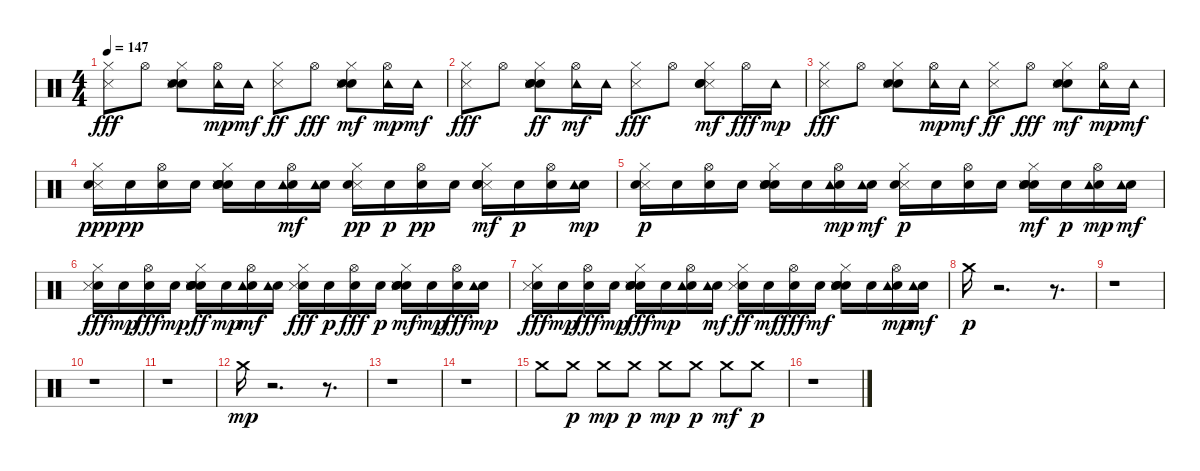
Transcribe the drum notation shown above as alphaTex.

\track "" {instrument percussion}
\staff {score}
\articulation defaults
\ts (4 4)
\tempo 147
\clef neutral
\ks c
("Metronome (hit)" "Hi-Hat (closed)").8{dy fff} "Hi-Hat (open)".8 ("Hand Clap (hit)" "Metronome (hit)" "Hi-Hat (closed)" "Snare (hit) 2").8 ("Hi-Hat (open)" "Tambourine (hit)").16{dy mp} "Tambourine (hit)".16{dy mf} ("Metronome (hit)" "Hi-Hat (closed)").8{dy ff} "Hi-Hat (open)".8{dy fff} ("Hand Clap (hit)" "Metronome (hit)" "Hi-Hat (closed)" "Snare (hit) 2").8{dy mf} ("Hi-Hat (open)" "Tambourine (hit)").16{dy mp} "Tambourine (hit)".16{dy mf} |
("Hi-Hat (closed)" "Metronome (hit)").8{dy fff} "Hi-Hat (open)".8 ("Hand Clap (hit)" "Metronome (hit)" "Hi-Hat (closed)" "Snare (hit) 2" "Snare (hit) 2").8{dy ff} ("Hi-Hat (open)" "Tambourine (hit)").16{dy mf} "Tambourine (hit)".16 ("Hi-Hat (closed)" "Metronome (hit)").8{dy fff} "Hi-Hat (open)".8 ("Metronome (hit)" "Hand Clap (hit)" "Hi-Hat (closed)" "Snare (hit) 2").8{dy mf} "Hi-Hat (open)".16{dy fff} "Tambourine (hit)".16{dy mp} |
("Metronome (hit)" "Hi-Hat (closed)").8{dy fff} "Hi-Hat (open)".8 ("Hand Clap (hit)" "Metronome (hit)" "Hi-Hat (closed)" "Snare (hit) 2").8 ("Hi-Hat (open)" "Tambourine (hit)").16{dy mp} "Tambourine (hit)".16{dy mf} ("Metronome (hit)" "Hi-Hat (closed)").8{dy ff} "Hi-Hat (open)".8{dy fff} ("Hand Clap (hit)" "Metronome (hit)" "Hi-Hat (closed)" "Snare (hit) 2").8{dy mf} ("Hi-Hat (open)" "Tambourine (hit)").16{dy mp} "Tambourine (hit)".16{dy mf} |
("Hi-Hat (closed)" "Metronome (hit)" "Snare (hit) 2").16{dy ppp} "Snare (hit) 2".16{dy pp} ("Hi-Hat (open)" "Snare (hit) 2").16 "Snare (hit) 2".16 ("Hand Clap (hit)" "Metronome (hit)" "Hi-Hat (closed)" "Snare (hit) 2" "Snare (hit) 2" "Snare (hit) 2").16 "Snare (hit) 2".16 ("Hi-Hat (open)" "Snare (hit) 2" "Tambourine (hit)").16{dy mf} ("Snare (hit) 2" "Tambourine (hit)").16 ("Hi-Hat (closed)" "Metronome (hit)" "Snare (hit) 2").16{dy pp} "Snare (hit) 2".16{dy p} ("Hi-Hat (open)" "Snare (hit) 2").16{dy pp} "Snare (hit) 2".16 ("Metronome (hit)" "Hand Clap (hit)" "Hi-Hat (closed)" "Snare (hit) 2" "Snare (hit) 2").16{dy mf} "Snare (hit) 2".16{dy p} ("Hi-Hat (open)" "Snare (hit) 2").16 ("Snare (hit) 2" "Tambourine (hit)").16{dy mp} |
("Metronome (hit)" "Hi-Hat (closed)" "Snare (hit) 2").16{dy p} "Snare (hit) 2".16 ("Hi-Hat (open)" "Snare (hit) 2").16 "Snare (hit) 2".16 ("Hand Clap (hit)" "Metronome (hit)" "Hi-Hat (closed)" "Snare (hit) 2" "Snare (hit) 2").16 "Snare (hit) 2".16 ("Hi-Hat (open)" "Snare (hit) 2" "Tambourine (hit)").16{dy mp} ("Snare (hit) 2" "Tambourine (hit)").16{dy mf} ("Metronome (hit)" "Hi-Hat (closed)" "Snare (hit) 2").16{dy p} "Snare (hit) 2".16 ("Hi-Hat (open)" "Snare (hit) 2").16 "Snare (hit) 2".16 ("Hand Clap (hit)" "Metronome (hit)" "Hi-Hat (closed)" "Snare (hit) 2" "Snare (hit) 2").16{dy mf} "Snare (hit) 2".16{dy p} ("Hi-Hat (open)" "Snare (hit) 2" "Tambourine (hit)").16{dy mp} ("Snare (hit) 2" "Tambourine (hit)").16{dy mf} |
("Snare (hit) 2" "Hi-Hat (closed)" "Metronome (hit)").16{dy fff} "Snare (hit) 2".16{dy mp} ("Snare (hit) 2" "Hi-Hat (open)").16{dy fff} "Snare (hit) 2".16{dy mp} ("Snare (hit) 2" "Hand Clap (hit)" "Metronome (hit)" "Hi-Hat (closed)" "Snare (hit) 2" "Snare (hit) 2").16{dy ff} "Snare (hit) 2".16{dy mp} ("Snare (hit) 2" "Hi-Hat (open)" "Tambourine (hit)").16{dy mf} ("Snare (hit) 2" "Tambourine (hit)").16 ("Snare (hit) 2" "Hi-Hat (closed)" "Metronome (hit)").16{dy fff} "Snare (hit) 2".16{dy p} ("Snare (hit) 2" "Hi-Hat (open)").16{dy fff} "Snare (hit) 2".16{dy p} ("Snare (hit) 2" "Metronome (hit)" "Hand Clap (hit)" "Hi-Hat (closed)" "Snare (hit) 2").16{dy mf} "Snare (hit) 2".16{dy mp} ("Snare (hit) 2" "Hi-Hat (open)").16{dy fff} ("Snare (hit) 2" "Tambourine (hit)").16{dy mp} |
("Snare (hit) 2" "Metronome (hit)" "Hi-Hat (closed)").16{dy fff} "Snare (hit) 2".16{dy mp} ("Snare (hit) 2" "Hi-Hat (open)").16{dy fff} "Snare (hit) 2".16{dy mp} ("Snare (hit) 2" "Hand Clap (hit)" "Metronome (hit)" "Hi-Hat (closed)" "Snare (hit) 2").16{dy fff} "Snare (hit) 2".16{dy mp} ("Snare (hit) 2" "Hi-Hat (open)" "Tambourine (hit)").16 ("Snare (hit) 2" "Tambourine (hit)").16{dy mf} ("Snare (hit) 2" "Metronome (hit)" "Hi-Hat (closed)").16{dy ff} "Snare (hit) 2".16{dy mf} ("Snare (hit) 2" "Hi-Hat (open)").16{dy fff} "Snare (hit) 2".16{dy mf} ("Snare (hit) 2" "Hand Clap (hit)" "Metronome (hit)" "Hi-Hat (closed)" "Snare (hit) 2").16 "Snare (hit) 2".16 ("Snare (hit) 2" "Hi-Hat (open)" "Tambourine (hit)").16{dy mp} ("Snare (hit) 2" "Tambourine (hit)").16{dy mf} |
"Crash medium (hit)".16{dy p} r.2{d} r.8{d} |
r.1 |
r.1 |
r.1 |
"Crash medium (hit)".16{dy mp} r.2{d} r.8{d} |
r.1 |
r.1 |
"Crash medium (hit)".8 "Crash medium (hit)".8{dy p} "Crash medium (hit)".8{dy mp} "Crash medium (hit)".8{dy p} "Crash medium (hit)".8{dy mp} "Crash medium (hit)".8{dy p} "Crash medium (hit)".8{dy mf} "Crash medium (hit)".8{dy p} |
r.1
